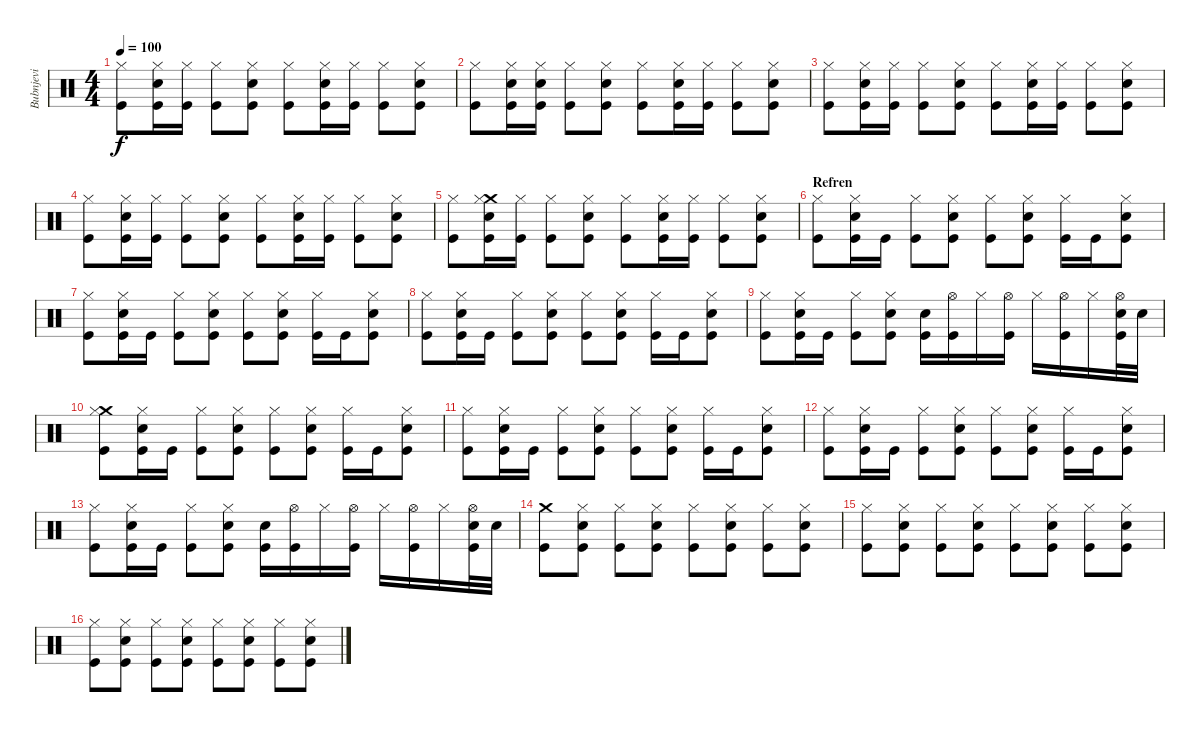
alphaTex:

\track ("Bubnjevi" "Bubnjevi") {instrument percussion}
\staff {score}
\articulation defaults
\ts (4 4)
\tempo 100
\clef neutral
\ks c
("Hi-Hat (closed)" "Kick (hit)").8{dy f} ("Electric Snare (hit)" "Hi-Hat (closed)" "Kick (hit)").16 ("Hi-Hat (closed)" "Kick (hit)").16 ("Hi-Hat (closed)" "Kick (hit)").8 ("Electric Snare (hit)" "Hi-Hat (closed)" "Kick (hit)").8 ("Hi-Hat (closed)" "Kick (hit)").8 ("Electric Snare (hit)" "Hi-Hat (closed)" "Kick (hit)").16 ("Hi-Hat (closed)" "Kick (hit)").16 ("Hi-Hat (closed)" "Kick (hit)").8 ("Electric Snare (hit)" "Hi-Hat (closed)" "Kick (hit)").8 |
("Hi-Hat (closed)" "Kick (hit)").8 ("Electric Snare (hit)" "Hi-Hat (closed)" "Kick (hit)").16 ("Electric Snare (hit)" "Hi-Hat (closed)" "Kick (hit)").16 ("Hi-Hat (closed)" "Kick (hit)").8 ("Electric Snare (hit)" "Hi-Hat (closed)" "Kick (hit)").8 ("Hi-Hat (closed)" "Kick (hit)").8 ("Electric Snare (hit)" "Hi-Hat (closed)" "Kick (hit)").16 ("Hi-Hat (closed)" "Kick (hit)").16 ("Hi-Hat (closed)" "Kick (hit)").8 ("Electric Snare (hit)" "Hi-Hat (closed)" "Kick (hit)").8 |
("Hi-Hat (closed)" "Kick (hit)").8 ("Electric Snare (hit)" "Hi-Hat (closed)" "Kick (hit)").16 ("Hi-Hat (closed)" "Kick (hit)").16 ("Hi-Hat (closed)" "Kick (hit)").8 ("Electric Snare (hit)" "Hi-Hat (closed)" "Kick (hit)").8 ("Hi-Hat (closed)" "Kick (hit)").8 ("Electric Snare (hit)" "Hi-Hat (closed)" "Kick (hit)").16 ("Hi-Hat (closed)" "Kick (hit)").16 ("Hi-Hat (closed)" "Kick (hit)").8 ("Electric Snare (hit)" "Hi-Hat (closed)" "Kick (hit)").8 |
("Hi-Hat (closed)" "Kick (hit)").8 ("Electric Snare (hit)" "Hi-Hat (closed)" "Kick (hit)").16 ("Hi-Hat (closed)" "Kick (hit)").16 ("Hi-Hat (closed)" "Kick (hit)").8 ("Electric Snare (hit)" "Hi-Hat (closed)" "Kick (hit)").8 ("Hi-Hat (closed)" "Kick (hit)").8 ("Electric Snare (hit)" "Hi-Hat (closed)" "Kick (hit)").16 ("Hi-Hat (closed)" "Kick (hit)").16 ("Hi-Hat (closed)" "Kick (hit)").8 ("Electric Snare (hit)" "Hi-Hat (closed)" "Kick (hit)").8 |
("Hi-Hat (closed)" "Kick (hit)").8 ("Crash medium (hit)" "Electric Snare (hit)" "Hi-Hat (closed)" "Kick (hit)").16 ("Hi-Hat (closed)" "Kick (hit)").16 ("Hi-Hat (closed)" "Kick (hit)").8 ("Electric Snare (hit)" "Hi-Hat (closed)" "Kick (hit)").8 ("Hi-Hat (closed)" "Kick (hit)").8 ("Electric Snare (hit)" "Hi-Hat (closed)" "Kick (hit)").16 ("Hi-Hat (closed)" "Kick (hit)").16 ("Hi-Hat (closed)" "Kick (hit)").8 ("Electric Snare (hit)" "Hi-Hat (closed)" "Kick (hit)").8 |
\section ("" "Refren")
("Hi-Hat (closed)" "Kick (hit)").8 ("Electric Snare (hit)" "Hi-Hat (closed)" "Kick (hit)").16 "Kick (hit)".16 ("Hi-Hat (closed)" "Kick (hit)").8 ("Electric Snare (hit)" "Hi-Hat (closed)" "Kick (hit)").8 ("Hi-Hat (closed)" "Kick (hit)").8 ("Electric Snare (hit)" "Hi-Hat (closed)" "Kick (hit)").8 ("Hi-Hat (closed)" "Kick (hit)").16 "Kick (hit)".16 ("Electric Snare (hit)" "Hi-Hat (closed)" "Kick (hit)").8 |
("Hi-Hat (closed)" "Kick (hit)").8 ("Electric Snare (hit)" "Hi-Hat (closed)" "Kick (hit)").16 "Kick (hit)".16 ("Hi-Hat (closed)" "Kick (hit)").8 ("Electric Snare (hit)" "Hi-Hat (closed)" "Kick (hit)").8 ("Hi-Hat (closed)" "Kick (hit)").8 ("Electric Snare (hit)" "Hi-Hat (closed)" "Kick (hit)").8 ("Hi-Hat (closed)" "Kick (hit)").16 "Kick (hit)".16 ("Electric Snare (hit)" "Hi-Hat (closed)" "Kick (hit)").8 |
("Hi-Hat (closed)" "Kick (hit)").8 ("Electric Snare (hit)" "Hi-Hat (closed)" "Kick (hit)").16 "Kick (hit)".16 ("Hi-Hat (closed)" "Kick (hit)").8 ("Electric Snare (hit)" "Hi-Hat (closed)" "Kick (hit)").8 ("Hi-Hat (closed)" "Kick (hit)").8 ("Electric Snare (hit)" "Hi-Hat (closed)" "Kick (hit)").8 ("Hi-Hat (closed)" "Kick (hit)").16 "Kick (hit)".16 ("Electric Snare (hit)" "Hi-Hat (closed)" "Kick (hit)").8 |
("Hi-Hat (closed)" "Kick (hit)").8 ("Electric Snare (hit)" "Hi-Hat (closed)" "Kick (hit)").16 "Kick (hit)".16 ("Hi-Hat (closed)" "Kick (hit)").8 ("Electric Snare (hit)" "Hi-Hat (closed)" "Kick (hit)").8 ("Electric Snare (hit)" "Kick (hit)").16 ("Hi-Hat (open)" "Kick (hit)").16 "Hi-Hat (closed)".16 ("Hi-Hat (open)" "Kick (hit)").16 "Hi-Hat (closed)".16 ("Hi-Hat (open)" "Kick (hit)").16 "Hi-Hat (closed)".16 ("Electric Snare (hit)" "Hi-Hat (open)" "Kick (hit)").32 "Electric Snare (hit)".32 |
("Crash medium (hit)" "Hi-Hat (closed)" "Kick (hit)").8 ("Electric Snare (hit)" "Hi-Hat (closed)" "Kick (hit)").16 "Kick (hit)".16 ("Hi-Hat (closed)" "Kick (hit)").8 ("Electric Snare (hit)" "Hi-Hat (closed)" "Kick (hit)").8 ("Hi-Hat (closed)" "Kick (hit)").8 ("Electric Snare (hit)" "Hi-Hat (closed)" "Kick (hit)").8 ("Hi-Hat (closed)" "Kick (hit)").16 "Kick (hit)".16 ("Electric Snare (hit)" "Hi-Hat (closed)" "Kick (hit)").8 |
("Hi-Hat (closed)" "Kick (hit)").8 ("Electric Snare (hit)" "Hi-Hat (closed)" "Kick (hit)").16 "Kick (hit)".16 ("Hi-Hat (closed)" "Kick (hit)").8 ("Electric Snare (hit)" "Hi-Hat (closed)" "Kick (hit)").8 ("Hi-Hat (closed)" "Kick (hit)").8 ("Electric Snare (hit)" "Hi-Hat (closed)" "Kick (hit)").8 ("Hi-Hat (closed)" "Kick (hit)").16 "Kick (hit)".16 ("Electric Snare (hit)" "Hi-Hat (closed)" "Kick (hit)").8 |
("Hi-Hat (closed)" "Kick (hit)").8 ("Electric Snare (hit)" "Hi-Hat (closed)" "Kick (hit)").16 "Kick (hit)".16 ("Hi-Hat (closed)" "Kick (hit)").8 ("Electric Snare (hit)" "Hi-Hat (closed)" "Kick (hit)").8 ("Hi-Hat (closed)" "Kick (hit)").8 ("Electric Snare (hit)" "Hi-Hat (closed)" "Kick (hit)").8 ("Hi-Hat (closed)" "Kick (hit)").16 "Kick (hit)".16 ("Electric Snare (hit)" "Hi-Hat (closed)" "Kick (hit)").8 |
("Hi-Hat (closed)" "Kick (hit)").8 ("Electric Snare (hit)" "Hi-Hat (closed)" "Kick (hit)").16 "Kick (hit)".16 ("Hi-Hat (closed)" "Kick (hit)").8 ("Electric Snare (hit)" "Hi-Hat (closed)" "Kick (hit)").8 ("Electric Snare (hit)" "Kick (hit)").16 ("Hi-Hat (open)" "Kick (hit)").16 "Hi-Hat (closed)".16 ("Hi-Hat (open)" "Kick (hit)").16 "Hi-Hat (closed)".16 ("Hi-Hat (open)" "Kick (hit)").16 "Hi-Hat (closed)".16 ("Electric Snare (hit)" "Hi-Hat (open)" "Kick (hit)").32 "Electric Snare (hit)".32 |
("Crash medium (hit)" "Kick (hit)").8 ("Electric Snare (hit)" "Hi-Hat (closed)" "Kick (hit)").8 ("Hi-Hat (closed)" "Kick (hit)").8 ("Electric Snare (hit)" "Hi-Hat (closed)" "Kick (hit)").8 ("Hi-Hat (closed)" "Kick (hit)").8 ("Electric Snare (hit)" "Hi-Hat (closed)" "Kick (hit)").8 ("Hi-Hat (closed)" "Kick (hit)").8 ("Electric Snare (hit)" "Hi-Hat (closed)" "Kick (hit)").8 |
("Hi-Hat (closed)" "Kick (hit)").8 ("Electric Snare (hit)" "Hi-Hat (closed)" "Kick (hit)").8 ("Hi-Hat (closed)" "Kick (hit)").8 ("Electric Snare (hit)" "Hi-Hat (closed)" "Kick (hit)").8 ("Hi-Hat (closed)" "Kick (hit)").8 ("Electric Snare (hit)" "Hi-Hat (closed)" "Kick (hit)").8 ("Hi-Hat (closed)" "Kick (hit)").8 ("Electric Snare (hit)" "Hi-Hat (closed)" "Kick (hit)").8 |
("Hi-Hat (closed)" "Kick (hit)").8 ("Electric Snare (hit)" "Hi-Hat (closed)" "Kick (hit)").8 ("Hi-Hat (closed)" "Kick (hit)").8 ("Electric Snare (hit)" "Hi-Hat (closed)" "Kick (hit)").8 ("Hi-Hat (closed)" "Kick (hit)").8 ("Electric Snare (hit)" "Hi-Hat (closed)" "Kick (hit)").8 ("Hi-Hat (closed)" "Kick (hit)").8 ("Electric Snare (hit)" "Hi-Hat (closed)" "Kick (hit)").8
